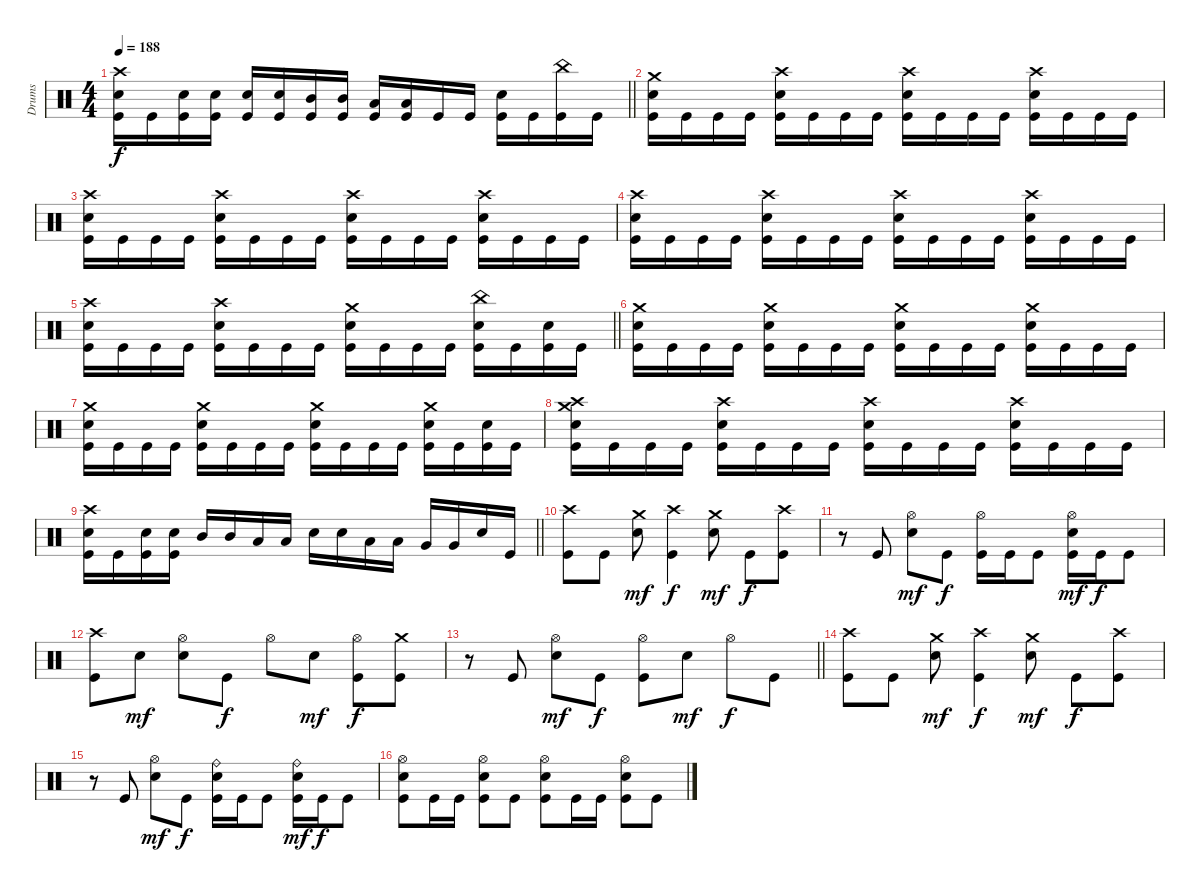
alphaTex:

\track ("Drums" "Drums") {instrument percussion}
\staff
\articulation defaults
\ts (4 4)
\tempo 188
\clef neutral
\barLineRight lightlight
\ks c
("Crash high (hit)" "Electric Snare (hit)" "Kick (hit)").16{dy f} "Kick (hit)".16 ("Electric Snare (hit)" "Kick (hit)").16 ("Electric Snare (hit)" "Kick (hit)").16 ("Electric Snare (hit)" "Kick (hit)").16 ("Electric Snare (hit)" "Kick (hit)").16 ("Mid Tom (hit)" "Kick (hit)").16 ("Mid Tom (hit)" "Kick (hit)").16 ("Low Tom (hit)" "Kick (hit)").16 ("Low Tom (hit)" "Kick (hit)").16 "Kick (hit)".16 "Kick (hit)".16 ("Electric Snare (hit)" "Kick (hit)").16 "Kick (hit)".16 ("China (hit)" "Kick (hit)").16 "Kick (hit)".16 |
("Crash medium (hit)" "Electric Snare (hit)" "Kick (hit)").16 "Kick (hit)".16 "Kick (hit)".16 "Kick (hit)".16 ("Crash high (hit)" "Electric Snare (hit)" "Kick (hit)").16 "Kick (hit)".16 "Kick (hit)".16 "Kick (hit)".16 ("Crash high (hit)" "Electric Snare (hit)" "Kick (hit)").16 "Kick (hit)".16 "Kick (hit)".16 "Kick (hit)".16 ("Crash high (hit)" "Electric Snare (hit)" "Kick (hit)").16 "Kick (hit)".16 "Kick (hit)".16 "Kick (hit)".16 |
("Crash high (hit)" "Electric Snare (hit)" "Kick (hit)").16 "Kick (hit)".16 "Kick (hit)".16 "Kick (hit)".16 ("Crash high (hit)" "Electric Snare (hit)" "Kick (hit)").16 "Kick (hit)".16 "Kick (hit)".16 "Kick (hit)".16 ("Crash high (hit)" "Electric Snare (hit)" "Kick (hit)").16 "Kick (hit)".16 "Kick (hit)".16 "Kick (hit)".16 ("Crash high (hit)" "Electric Snare (hit)" "Kick (hit)").16 "Kick (hit)".16 "Kick (hit)".16 "Kick (hit)".16 |
("Crash high (hit)" "Electric Snare (hit)" "Kick (hit)").16 "Kick (hit)".16 "Kick (hit)".16 "Kick (hit)".16 ("Crash high (hit)" "Electric Snare (hit)" "Kick (hit)").16 "Kick (hit)".16 "Kick (hit)".16 "Kick (hit)".16 ("Crash high (hit)" "Electric Snare (hit)" "Kick (hit)").16 "Kick (hit)".16 "Kick (hit)".16 "Kick (hit)".16 ("Crash high (hit)" "Electric Snare (hit)" "Kick (hit)").16 "Kick (hit)".16 "Kick (hit)".16 "Kick (hit)".16 |
\barLineRight lightlight
("Crash high (hit)" "Electric Snare (hit)" "Kick (hit)").16 "Kick (hit)".16 "Kick (hit)".16 "Kick (hit)".16 ("Crash high (hit)" "Electric Snare (hit)" "Kick (hit)").16 "Kick (hit)".16 "Kick (hit)".16 "Kick (hit)".16 ("Crash medium (hit)" "Electric Snare (hit)" "Kick (hit)").16 "Kick (hit)".16 "Kick (hit)".16 "Kick (hit)".16 ("China (hit)" "Electric Snare (hit)" "Kick (hit)").16 "Kick (hit)".16 ("Electric Snare (hit)" "Kick (hit)").16 "Kick (hit)".16 |
("Crash medium (hit)" "Electric Snare (hit)" "Kick (hit)").16 "Kick (hit)".16 "Kick (hit)".16 "Kick (hit)".16 ("Crash medium (hit)" "Electric Snare (hit)" "Kick (hit)").16 "Kick (hit)".16 "Kick (hit)".16 "Kick (hit)".16 ("Crash medium (hit)" "Electric Snare (hit)" "Kick (hit)").16 "Kick (hit)".16 "Kick (hit)".16 "Kick (hit)".16 ("Crash medium (hit)" "Electric Snare (hit)" "Kick (hit)").16 "Kick (hit)".16 "Kick (hit)".16 "Kick (hit)".16 |
("Crash medium (hit)" "Electric Snare (hit)" "Kick (hit)").16 "Kick (hit)".16 "Kick (hit)".16 "Kick (hit)".16 ("Crash medium (hit)" "Electric Snare (hit)" "Kick (hit)").16 "Kick (hit)".16 "Kick (hit)".16 "Kick (hit)".16 ("Crash medium (hit)" "Electric Snare (hit)" "Kick (hit)").16 "Kick (hit)".16 "Kick (hit)".16 "Kick (hit)".16 ("Crash medium (hit)" "Electric Snare (hit)" "Kick (hit)").16 "Kick (hit)".16 ("Electric Snare (hit)" "Kick (hit)").16 "Kick (hit)".16 |
("Crash medium (hit)" "Crash high (hit)" "Electric Snare (hit)" "Kick (hit)").16 "Kick (hit)".16 "Kick (hit)".16 "Kick (hit)".16 ("Crash high (hit)" "Electric Snare (hit)" "Kick (hit)").16 "Kick (hit)".16 "Kick (hit)".16 "Kick (hit)".16 ("Crash high (hit)" "Electric Snare (hit)" "Kick (hit)").16 "Kick (hit)".16 "Kick (hit)".16 "Kick (hit)".16 ("Crash high (hit)" "Electric Snare (hit)" "Kick (hit)").16 "Kick (hit)".16 "Kick (hit)".16 "Kick (hit)".16 |
\barLineRight lightlight
("Crash high (hit)" "Electric Snare (hit)" "Kick (hit)").16 "Kick (hit)".16 ("Electric Snare (hit)" "Kick (hit)").16 ("Electric Snare (hit)" "Kick (hit)").16 "Mid Tom (hit)".16 "Mid Tom (hit)".16 "Low Tom (hit)".16 "Low Tom (hit)".16 "Electric Snare (hit)".16 "Electric Snare (hit)".16 "Low Tom (hit)".16 "Low Tom (hit)".16 "Very Low Tom (hit)".16 "Very Low Tom (hit)".16 "Electric Snare (hit)".16 "Kick (hit)".16 |
\section ("" "")
("Crash high (hit)" "Kick (hit)").8 "Kick (hit)".8 ("Crash medium (hit)" "Electric Snare (hit)").8{dy mf} ("Crash high (hit)" "Kick (hit)").4{dy f} ("Crash medium (hit)" "Electric Snare (hit)").8{dy mf} "Kick (hit)".8{dy f} ("Crash high (hit)" "Kick (hit)").8 |
r.8 "Kick (hit)".8 ("Hi-Hat (open)" "Electric Snare (hit)").8{dy mf} "Kick (hit)".8{dy f} ("Hi-Hat (open)" "Kick (hit)").16 "Kick (hit)".16 "Kick (hit)".8 ("Hi-Hat (open)" "Electric Snare (hit)" "Kick (hit)").16{dy mf} "Kick (hit)".16{dy f} "Kick (hit)".8 |
("Crash high (hit)" "Kick (hit)").8 "Electric Snare (hit)".8{dy mf} ("Hi-Hat (open)" "Electric Snare (hit)").8 "Kick (hit)".8{dy f} "Hi-Hat (open)".8 "Electric Snare (hit)".8{dy mf} ("Hi-Hat (open)" "Kick (hit)").8{dy f} ("Crash medium (hit)" "Kick (hit)").8 |
\barLineRight lightlight
r.8 "Kick (hit)".8 ("Hi-Hat (open)" "Electric Snare (hit)").8{dy mf} "Kick (hit)".8{dy f} ("Hi-Hat (open)" "Kick (hit)").8 "Electric Snare (hit)".8{dy mf} "Hi-Hat (open)".8{dy f} "Kick (hit)".8 |
("Crash high (hit)" "Kick (hit)").8 "Kick (hit)".8 ("Crash medium (hit)" "Electric Snare (hit)").8{dy mf} ("Crash high (hit)" "Kick (hit)").4{dy f} ("Crash medium (hit)" "Electric Snare (hit)").8{dy mf} "Kick (hit)".8{dy f} ("Crash high (hit)" "Kick (hit)").8 |
r.8 "Kick (hit)".8 ("Hi-Hat (open)" "Electric Snare (hit)").8{dy mf} "Kick (hit)".8{dy f} ("Ride (bell)" "Electric Snare (hit)" "Kick (hit)").16 "Kick (hit)".16 "Kick (hit)".8 ("Ride (bell)" "Electric Snare (hit)" "Kick (hit)").16{dy mf} "Kick (hit)".16{dy f} "Kick (hit)".8 |
("Hi-Hat (open)" "Electric Snare (hit)" "Kick (hit)").8 "Kick (hit)".16 "Kick (hit)".16 ("Hi-Hat (open)" "Electric Snare (hit)" "Kick (hit)").8 "Kick (hit)".8 ("Hi-Hat (open)" "Electric Snare (hit)" "Kick (hit)").8 "Kick (hit)".16 "Kick (hit)".16 ("Hi-Hat (open)" "Electric Snare (hit)" "Kick (hit)").8 "Kick (hit)".8
